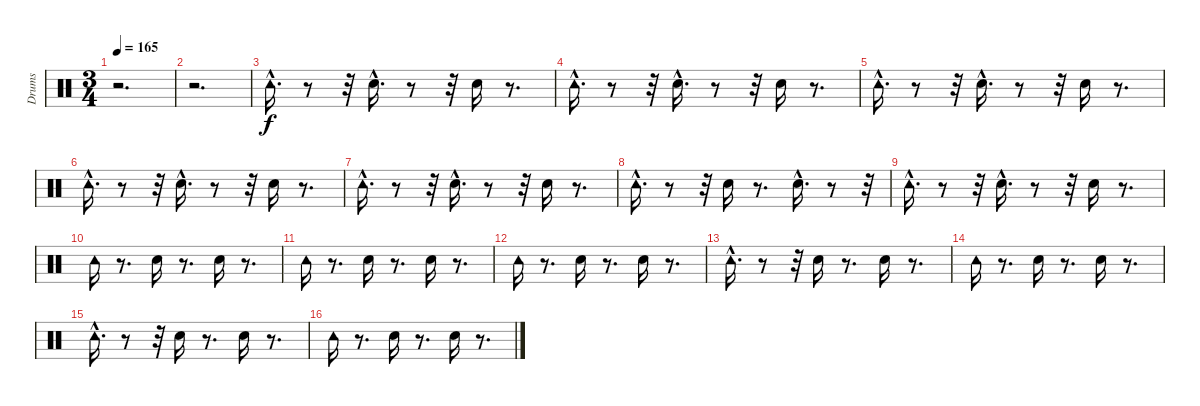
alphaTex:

\track ("Drums" "Drums") {instrument percussion}
\staff {score}
\articulation defaults
\ts (3 4)
\tempo 165
\clef neutral
\ks c
r.2{d dy f} |
r.2{d} |
"Tambourine (hit)"{hac}.16{d} r.8 r.32 "Snare (hit)"{hac}.16{d} r.8 r.32 "Snare (hit)".16 r.8{d} |
"Tambourine (hit)"{hac}.16{d} r.8 r.32 "Snare (hit)"{hac}.16{d} r.8 r.32 "Snare (hit)".16 r.8{d} |
"Tambourine (hit)"{hac}.16{d} r.8 r.32 "Snare (hit)"{hac}.16{d} r.8 r.32 "Snare (hit)".16 r.8{d} |
"Tambourine (hit)"{hac}.16{d} r.8 r.32 "Snare (hit)"{hac}.16{d} r.8 r.32 "Snare (hit)".16 r.8{d} |
"Tambourine (hit)"{hac}.16{d} r.8 r.32 "Snare (hit)"{hac}.16{d} r.8 r.32 "Snare (hit)".16 r.8{d} |
"Tambourine (hit)"{hac}.16{d} r.8 r.32 "Snare (hit)".16 r.8{d} "Snare (hit)"{hac}.16{d} r.8 r.32 |
"Tambourine (hit)"{hac}.16{d} r.8 r.32 "Snare (hit)"{hac}.16{d} r.8 r.32 "Snare (hit)".16 r.8{d} |
"Tambourine (hit)".16 r.8{d} "Snare (hit)".16 r.8{d} "Snare (hit)".16 r.8{d} |
"Tambourine (hit)".16 r.8{d} "Snare (hit)".16 r.8{d} "Snare (hit)".16 r.8{d} |
"Tambourine (hit)".16 r.8{d} "Snare (hit)".16 r.8{d} "Snare (hit)".16 r.8{d} |
"Tambourine (hit)"{hac}.16{d} r.8 r.32 "Snare (hit)".16 r.8{d} "Snare (hit)".16 r.8{d} |
"Tambourine (hit)".16 r.8{d} "Snare (hit)".16 r.8{d} "Snare (hit)".16 r.8{d} |
"Tambourine (hit)"{hac}.16{d} r.8 r.32 "Snare (hit)".16 r.8{d} "Snare (hit)".16 r.8{d} |
"Tambourine (hit)".16 r.8{d} "Snare (hit)".16 r.8{d} "Snare (hit)".16 r.8{d}
